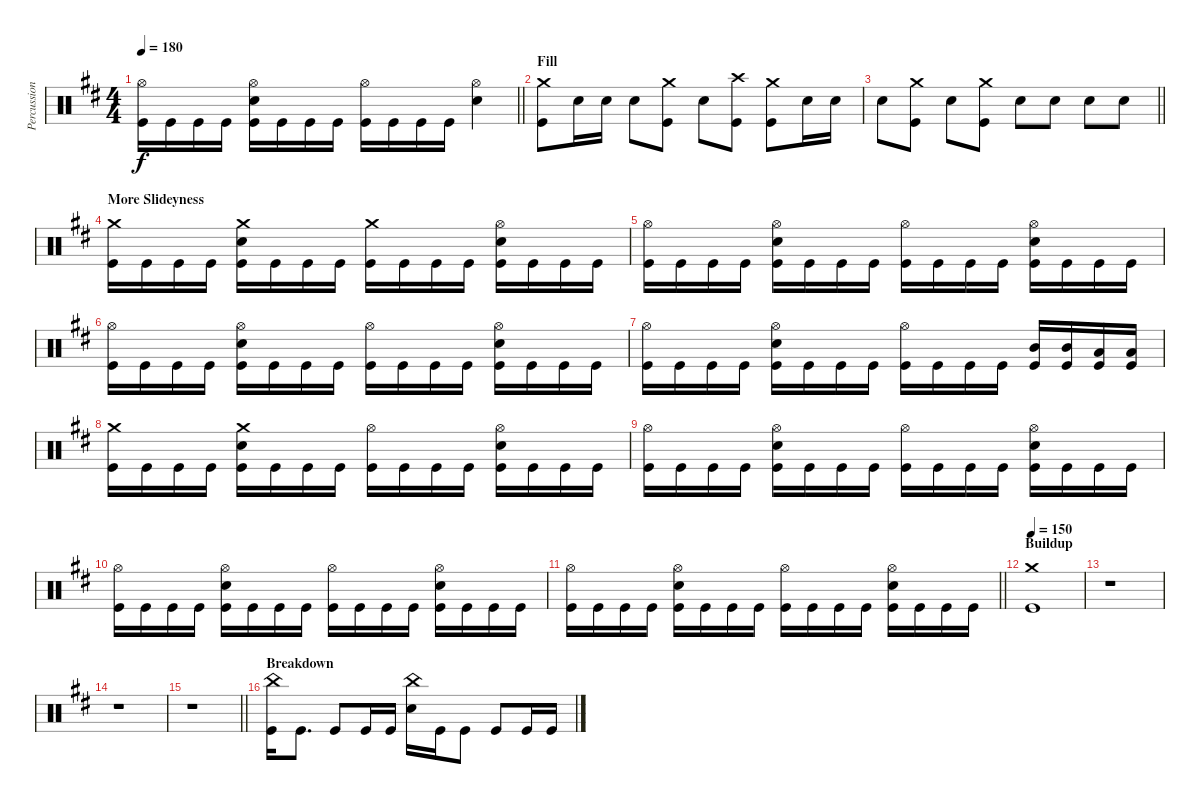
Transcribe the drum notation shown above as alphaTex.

\track ("Percussion" "Percussion") {instrument percussion}
\staff {score}
\articulation defaults
\ts (4 4)
\tempo 180
\clef neutral
\barLineRight lightlight
\ks d
("Hi-Hat (open)" "Kick (hit)").16{dy f} "Kick (hit)".16 "Kick (hit)".16 "Kick (hit)".16 ("Hi-Hat (open)" "Electric Snare (hit)" "Kick (hit)").16 "Kick (hit)".16 "Kick (hit)".16 "Kick (hit)".16 ("Hi-Hat (open)" "Kick (hit)").16 "Kick (hit)".16 "Kick (hit)".16 "Kick (hit)".16 ("Hi-Hat (open)" "Electric Snare (hit)").4 |
\section ("" "Fill")
("Crash medium (hit)" "Kick (hit)").8 "Electric Snare (hit)".16 "Electric Snare (hit)".16 "Electric Snare (hit)".8 ("Crash medium (hit)" "Kick (hit)").8 "Electric Snare (hit)".8 ("Crash high (hit)" "Kick (hit)").8 ("Crash medium (hit)" "Kick (hit)").8 "Electric Snare (hit)".16 "Electric Snare (hit)".16 |
\barLineRight lightlight "Electric Snare (hit)".8
("Crash medium (hit)" "Kick (hit)").8 "Electric Snare (hit)".8 ("Crash medium (hit)" "Kick (hit)").8 "Electric Snare (hit)".8 "Electric Snare (hit)".8 "Electric Snare (hit)".8 "Electric Snare (hit)".8 |
\section ("" "More Slideyness")
("Crash medium (hit)" "Kick (hit)").16 "Kick (hit)".16 "Kick (hit)".16 "Kick (hit)".16 ("Crash medium (hit)" "Electric Snare (hit)" "Kick (hit)").16 "Kick (hit)".16 "Kick (hit)".16 "Kick (hit)".16 ("Crash medium (hit)" "Kick (hit)").16 "Kick (hit)".16 "Kick (hit)".16 "Kick (hit)".16 ("Hi-Hat (open)" "Electric Snare (hit)" "Kick (hit)").16 "Kick (hit)".16 "Kick (hit)".16 "Kick (hit)".16 |
("Hi-Hat (open)" "Kick (hit)").16 "Kick (hit)".16 "Kick (hit)".16 "Kick (hit)".16 ("Hi-Hat (open)" "Electric Snare (hit)" "Kick (hit)").16 "Kick (hit)".16 "Kick (hit)".16 "Kick (hit)".16 ("Hi-Hat (open)" "Kick (hit)").16 "Kick (hit)".16 "Kick (hit)".16 "Kick (hit)".16 ("Hi-Hat (open)" "Electric Snare (hit)" "Kick (hit)").16 "Kick (hit)".16 "Kick (hit)".16 "Kick (hit)".16 |
("Hi-Hat (open)" "Kick (hit)").16 "Kick (hit)".16 "Kick (hit)".16 "Kick (hit)".16 ("Hi-Hat (open)" "Electric Snare (hit)" "Kick (hit)").16 "Kick (hit)".16 "Kick (hit)".16 "Kick (hit)".16 ("Hi-Hat (open)" "Kick (hit)").16 "Kick (hit)".16 "Kick (hit)".16 "Kick (hit)".16 ("Hi-Hat (open)" "Electric Snare (hit)" "Kick (hit)").16 "Kick (hit)".16 "Kick (hit)".16 "Kick (hit)".16 |
("Hi-Hat (open)" "Kick (hit)").16 "Kick (hit)".16 "Kick (hit)".16 "Kick (hit)".16 ("Hi-Hat (open)" "Electric Snare (hit)" "Kick (hit)").16 "Kick (hit)".16 "Kick (hit)".16 "Kick (hit)".16 ("Hi-Hat (open)" "Kick (hit)").16 "Kick (hit)".16 "Kick (hit)".16 "Kick (hit)".16 ("Mid Tom (hit)" "Kick (hit)").16 ("Mid Tom (hit)" "Kick (hit)").16 ("Low Tom (hit)" "Kick (hit)").16 ("Low Tom (hit)" "Kick (hit)").16 |
("Crash medium (hit)" "Kick (hit)").16 "Kick (hit)".16 "Kick (hit)".16 "Kick (hit)".16 ("Crash medium (hit)" "Electric Snare (hit)" "Kick (hit)").16 "Kick (hit)".16 "Kick (hit)".16 "Kick (hit)".16 ("Hi-Hat (open)" "Kick (hit)").16 "Kick (hit)".16 "Kick (hit)".16 "Kick (hit)".16 ("Hi-Hat (open)" "Electric Snare (hit)" "Kick (hit)").16 "Kick (hit)".16 "Kick (hit)".16 "Kick (hit)".16 |
("Hi-Hat (open)" "Kick (hit)").16 "Kick (hit)".16 "Kick (hit)".16 "Kick (hit)".16 ("Hi-Hat (open)" "Electric Snare (hit)" "Kick (hit)").16 "Kick (hit)".16 "Kick (hit)".16 "Kick (hit)".16 ("Hi-Hat (open)" "Kick (hit)").16 "Kick (hit)".16 "Kick (hit)".16 "Kick (hit)".16 ("Hi-Hat (open)" "Electric Snare (hit)" "Kick (hit)").16 "Kick (hit)".16 "Kick (hit)".16 "Kick (hit)".16 |
("Hi-Hat (open)" "Kick (hit)").16 "Kick (hit)".16 "Kick (hit)".16 "Kick (hit)".16 ("Hi-Hat (open)" "Electric Snare (hit)" "Kick (hit)").16 "Kick (hit)".16 "Kick (hit)".16 "Kick (hit)".16 ("Hi-Hat (open)" "Kick (hit)").16 "Kick (hit)".16 "Kick (hit)".16 "Kick (hit)".16 ("Hi-Hat (open)" "Electric Snare (hit)" "Kick (hit)").16 "Kick (hit)".16 "Kick (hit)".16 "Kick (hit)".16 |
\barLineRight lightlight
("Hi-Hat (open)" "Kick (hit)").16 "Kick (hit)".16 "Kick (hit)".16 "Kick (hit)".16 ("Hi-Hat (open)" "Electric Snare (hit)" "Kick (hit)").16 "Kick (hit)".16 "Kick (hit)".16 "Kick (hit)".16 ("Hi-Hat (open)" "Kick (hit)").16 "Kick (hit)".16 "Kick (hit)".16 "Kick (hit)".16 ("Hi-Hat (open)" "Electric Snare (hit)" "Kick (hit)").16 "Kick (hit)".16 "Kick (hit)".16 "Kick (hit)".16 |
\section ("" "Buildup")
\tempo 150
("Crash medium (hit)" "Kick (hit)").1 |
r.1 |
r.1 |
\barLineRight lightlight
r.1 |
\section ("" "Breakdown")
("China (hit)" "Kick (hit)").16 "Kick (hit)".8{d} "Kick (hit)".8 "Kick (hit)".16 "Kick (hit)".16 ("China (hit)" "Electric Snare (hit)").16 "Kick (hit)".16 "Kick (hit)".8 "Kick (hit)".8 "Kick (hit)".16 "Kick (hit)".16
